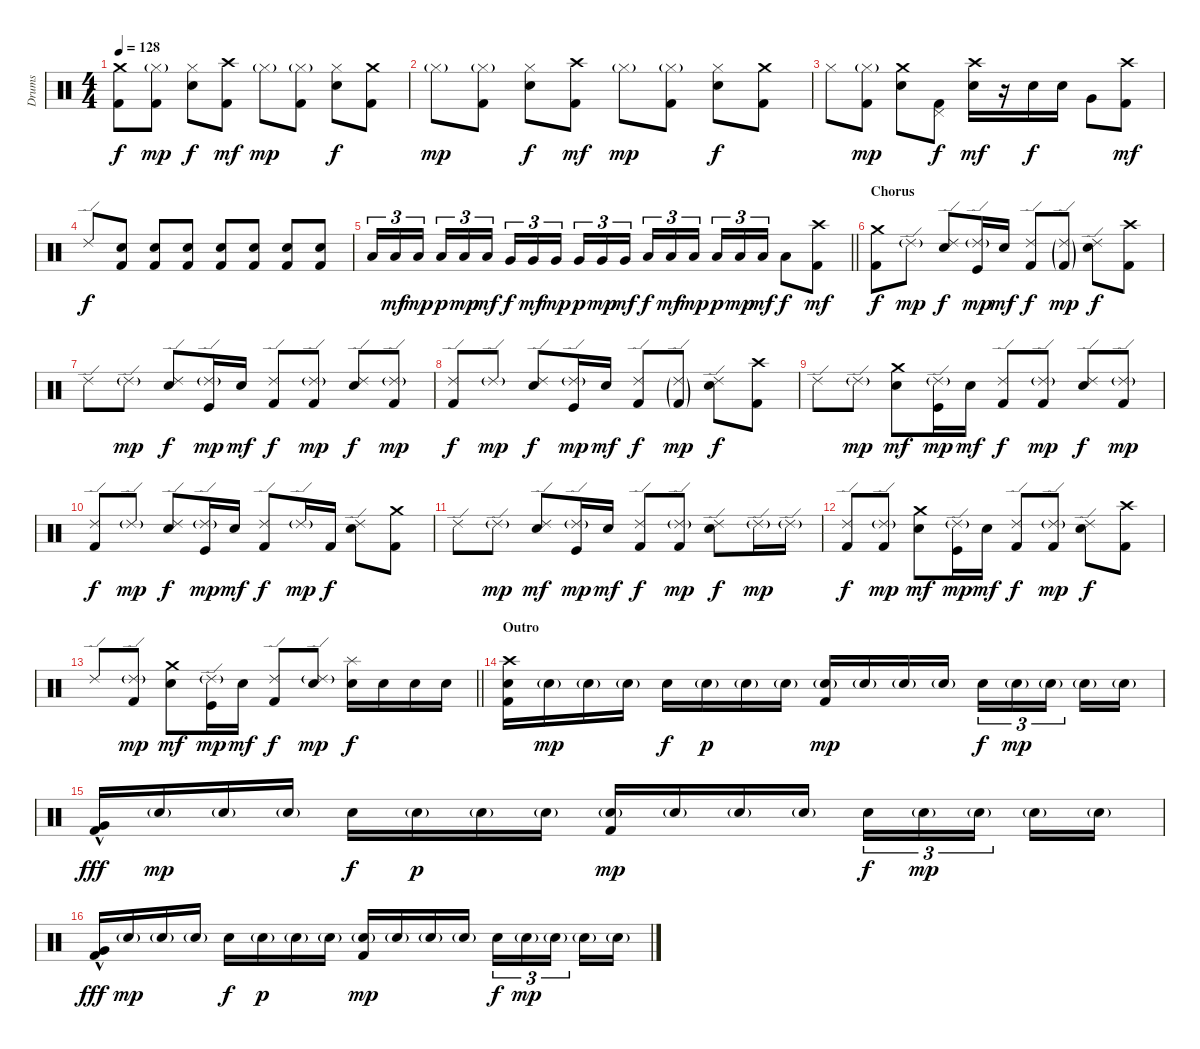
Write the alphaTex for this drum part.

\track ("Drums" "Drums") {instrument percussion}
\staff {score}
\articulation defaults
\ts (4 4)
\tempo 128
\clef neutral
\ks c
("Crash medium (hit)" "Kick (hit) 2").8{dy f} ("Hi-Hat (closed)"{g} "Kick (hit) 2").8{dy mp} ("Hi-Hat (closed)" "Electric Snare (hit)").8{dy f} ("Crash high (hit)" "Kick (hit) 2").8{dy mf} "Hi-Hat (closed)"{g}.8{dy mp} ("Hi-Hat (closed)"{g} "Kick (hit) 2").8 ("Hi-Hat (closed)" "Electric Snare (hit)").8{dy f} ("Crash medium (hit)" "Kick (hit) 2").8 |
"Hi-Hat (closed)"{g}.8{dy mp} ("Hi-Hat (closed)"{g} "Kick (hit) 2").8 ("Hi-Hat (closed)" "Electric Snare (hit)").8{dy f} ("Crash high (hit)" "Kick (hit) 2").8{dy mf} "Hi-Hat (closed)"{g}.8{dy mp} ("Hi-Hat (closed)"{g} "Kick (hit) 2").8 ("Hi-Hat (closed)" "Electric Snare (hit)").8{dy f} ("Crash medium (hit)" "Kick (hit) 2").8 |
"Hi-Hat (closed)".8 ("Hi-Hat (closed)"{g} "Kick (hit) 2").8{dy mp} ("Crash medium (hit)" "Electric Snare (hit)").8 ("Pedal Hi-Hat (hit)" "Kick (hit) 2").8{dy f} ("Crash high (hit)" "Electric Snare (hit)").16{dy mf} r.16 "Electric Snare (hit)".16{dy f} "Electric Snare (hit)".16 "Very Low Tom (hit)".8 ("Crash high (hit)" "Kick (hit) 2").8{dy mf} |
"Ride (edge) 2".8{dy f volume 9} ("Electric Snare (hit)" "Kick (hit) 2").8 ("Electric Snare (hit)" "Kick (hit) 2").8{volume 14} ("Electric Snare (hit)" "Kick (hit) 2").8 ("Electric Snare (hit)" "Kick (hit) 2").8 ("Electric Snare (hit)" "Kick (hit) 2").8 ("Electric Snare (hit)" "Kick (hit) 2").8 ("Electric Snare (hit)" "Kick (hit) 2").8 |
\barLineRight lightlight "Low Tom (hit)".16{tu (3 2)} "Low Tom (hit)".16{tu (3 2) dy mf} "Low Tom (hit)".16{tu (3 2) dy mp beam splitsecondary} "Low Tom (hit)".16{tu (3 2) dy p} "Low Tom (hit)".16{tu (3 2) dy mp} "Low Tom (hit)".16{tu (3 2) dy mf} "Very Low Tom (hit)".16{tu (3 2) dy f} "Very Low Tom (hit)".16{tu (3 2) dy mf} "Very Low Tom (hit)".16{tu (3 2) dy mp beam splitsecondary} "Very Low Tom (hit)".16{tu (3 2) dy p} "Very Low Tom (hit)".16{tu (3 2) dy mp} "Very Low Tom (hit)".16{tu (3 2) dy mf} "Low Floor Tom (hit)".16{tu (3 2) dy f} "Low Floor Tom (hit)".16{tu (3 2) dy mf} "Low Floor Tom (hit)".16{tu (3 2) dy mp beam splitsecondary} "Low Floor Tom (hit)".16{tu (3 2) dy p} "Low Floor Tom (hit)".16{tu (3 2) dy mp} "Low Floor Tom (hit)".16{tu (3 2) dy mf} "Low Floor Tom (hit)".8{dy f}
("Crash high (hit)" "Kick (hit) 2").8{dy mf} |
\section ("" "Chorus")
("Crash medium (hit)" "Kick (hit) 2").8{dy f} "Ride (edge) 2"{g}.8{dy mp} ("Ride (edge) 2" "Electric Snare (hit)").8{dy f} ("Ride (edge) 2"{g} "Kick (hit)").16{dy mp} "Electric Snare (hit)".16{dy mf} ("Ride (edge) 2" "Kick (hit) 2").8{dy f} ("Ride (edge) 2"{g} "Kick (hit) 2"{g}).8{dy mp} ("Ride (edge) 2" "Electric Snare (hit)").8{dy f} ("Crash high (hit)" "Kick (hit) 2").8 |
"Ride (edge) 2".8 "Ride (edge) 2"{g}.8{dy mp} ("Ride (edge) 2" "Electric Snare (hit)").8{dy f} ("Ride (edge) 2"{g} "Kick (hit)").16{dy mp} "Electric Snare (hit)".16{dy mf} ("Ride (edge) 2" "Kick (hit) 2").8{dy f} ("Ride (edge) 2"{g} "Kick (hit) 2").8{dy mp} ("Ride (edge) 2" "Electric Snare (hit)").8{dy f} ("Ride (edge) 2"{g} "Kick (hit) 2").8{dy mp} |
("Ride (edge) 2" "Kick (hit) 2").8{dy f} "Ride (edge) 2"{g}.8{dy mp} ("Ride (edge) 2" "Electric Snare (hit)").8{dy f} ("Ride (edge) 2"{g} "Kick (hit)").16{dy mp} "Electric Snare (hit)".16{dy mf} ("Ride (edge) 2" "Kick (hit) 2").8{dy f} ("Ride (edge) 2"{g} "Kick (hit) 2"{g}).8{dy mp} ("Ride (edge) 2" "Electric Snare (hit)").8{dy f} ("Crash high (hit)" "Kick (hit) 2").8 |
"Ride (edge) 2".8 "Ride (edge) 2"{g}.8{dy mp} ("Crash medium (hit)" "Electric Snare (hit)").8{dy mf} ("Ride (edge) 2"{g} "Kick (hit)").16{dy mp} "Electric Snare (hit)".16{dy mf} ("Ride (edge) 2" "Kick (hit) 2").8{dy f} ("Ride (edge) 2"{g} "Kick (hit) 2").8{dy mp} ("Ride (edge) 2" "Electric Snare (hit)").8{dy f} ("Ride (edge) 2"{g} "Kick (hit) 2").8{dy mp} |
("Ride (edge) 2" "Kick (hit) 2").8{dy f} "Ride (edge) 2"{g}.8{dy mp} ("Ride (edge) 2" "Electric Snare (hit)").8{dy f} ("Ride (edge) 2"{g} "Kick (hit)").16{dy mp} "Electric Snare (hit)".16{dy mf} ("Ride (edge) 2" "Kick (hit) 2").8{dy f} "Ride (edge) 2"{g}.16{dy mp} "Kick (hit) 2".16{dy f} ("Ride (edge) 2" "Electric Snare (hit)").8 ("Crash medium (hit)" "Kick (hit) 2").8 |
"Ride (edge) 2".8 "Ride (edge) 2"{g}.8{dy mp} ("Ride (edge) 2" "Electric Snare (hit)").8{dy mf} ("Ride (edge) 2"{g} "Kick (hit)").16{dy mp} "Electric Snare (hit)".16{dy mf} ("Ride (edge) 2" "Kick (hit) 2").8{dy f} ("Ride (edge) 2"{g} "Kick (hit) 2").8{dy mp} ("Ride (edge) 2" "Electric Snare (hit)").8{dy f} "Ride (edge) 2"{g}.16{dy mp} "Ride (edge) 2"{g}.16 |
("Ride (edge) 2" "Kick (hit) 2").8{dy f} ("Ride (edge) 2"{g} "Kick (hit) 2").8{dy mp} ("Crash medium (hit)" "Electric Snare (hit)").8{dy mf} ("Ride (edge) 2"{g} "Kick (hit)").16{dy mp} "Electric Snare (hit)".16{dy mf} ("Ride (edge) 2" "Kick (hit) 2").8{dy f} ("Ride (edge) 2"{g} "Kick (hit) 2").8{dy mp} ("Ride (edge) 2" "Electric Snare (hit)").8{dy f} ("Crash high (hit)" "Kick (hit) 2").8 |
\barLineRight lightlight "Ride (edge) 2".8
("Ride (edge) 2"{g} "Kick (hit) 2").8{dy mp} ("Crash medium (hit)" "Electric Snare (hit)").8{dy mf} ("Ride (edge) 2"{g} "Kick (hit)").16{dy mp} "Electric Snare (hit)".16{dy mf} ("Ride (edge) 2" "Kick (hit) 2").8{dy f} ("Ride (edge) 2"{g} "Electric Snare (hit)").8{dy mp} ("Splash (hit)" "Electric Snare (hit)").16{dy f} "Electric Snare (hit)".16 "Electric Snare (hit)".16 "Electric Snare (hit)".16 |
\section ("" "Outro")
("Crash high (hit)" "Electric Snare (hit)" "Kick (hit) 2").16{volume 15} "Electric Snare (hit)"{g}.16{dy mp} "Electric Snare (hit)"{g}.16 "Electric Snare (hit)"{g}.16 "Electric Snare (hit)".16{dy f} "Electric Snare (hit)"{g}.16{dy p} "Electric Snare (hit)"{g}.16 "Electric Snare (hit)"{g}.16 ("Electric Snare (hit)"{g} "Kick (hit) 2").16{dy mp} "Electric Snare (hit)"{g}.16 "Electric Snare (hit)"{g}.16 "Electric Snare (hit)"{g}.16 "Electric Snare (hit)".16{tu (3 2) dy f} "Electric Snare (hit)"{g}.16{tu (3 2) dy mp} "Electric Snare (hit)"{g}.16{tu (3 2) beam splitsecondary} "Electric Snare (hit)"{g}.16 "Electric Snare (hit)"{g}.16 |
("Very Low Tom (hit)"{hac} "Kick (hit) 2").16{dy fff} "Electric Snare (hit)"{g}.16{dy mp} "Electric Snare (hit)"{g}.16 "Electric Snare (hit)"{g}.16 "Electric Snare (hit)".16{dy f} "Electric Snare (hit)"{g}.16{dy p} "Electric Snare (hit)"{g}.16 "Electric Snare (hit)"{g}.16 ("Electric Snare (hit)"{g} "Kick (hit) 2").16{dy mp} "Electric Snare (hit)"{g}.16 "Electric Snare (hit)"{g}.16 "Electric Snare (hit)"{g}.16 "Electric Snare (hit)".16{tu (3 2) dy f} "Electric Snare (hit)"{g}.16{tu (3 2) dy mp} "Electric Snare (hit)"{g}.16{tu (3 2) beam splitsecondary} "Electric Snare (hit)"{g}.16 "Electric Snare (hit)"{g}.16 |
("Very Low Tom (hit)"{hac} "Kick (hit) 2").16{dy fff} "Electric Snare (hit)"{g}.16{dy mp} "Electric Snare (hit)"{g}.16 "Electric Snare (hit)"{g}.16 "Electric Snare (hit)".16{dy f} "Electric Snare (hit)"{g}.16{dy p} "Electric Snare (hit)"{g}.16 "Electric Snare (hit)"{g}.16 ("Electric Snare (hit)"{g} "Kick (hit) 2").16{dy mp} "Electric Snare (hit)"{g}.16 "Electric Snare (hit)"{g}.16 "Electric Snare (hit)"{g}.16 "Electric Snare (hit)".16{tu (3 2) dy f} "Electric Snare (hit)"{g}.16{tu (3 2) dy mp} "Electric Snare (hit)"{g}.16{tu (3 2) beam splitsecondary} "Electric Snare (hit)"{g}.16 "Electric Snare (hit)"{g}.16
